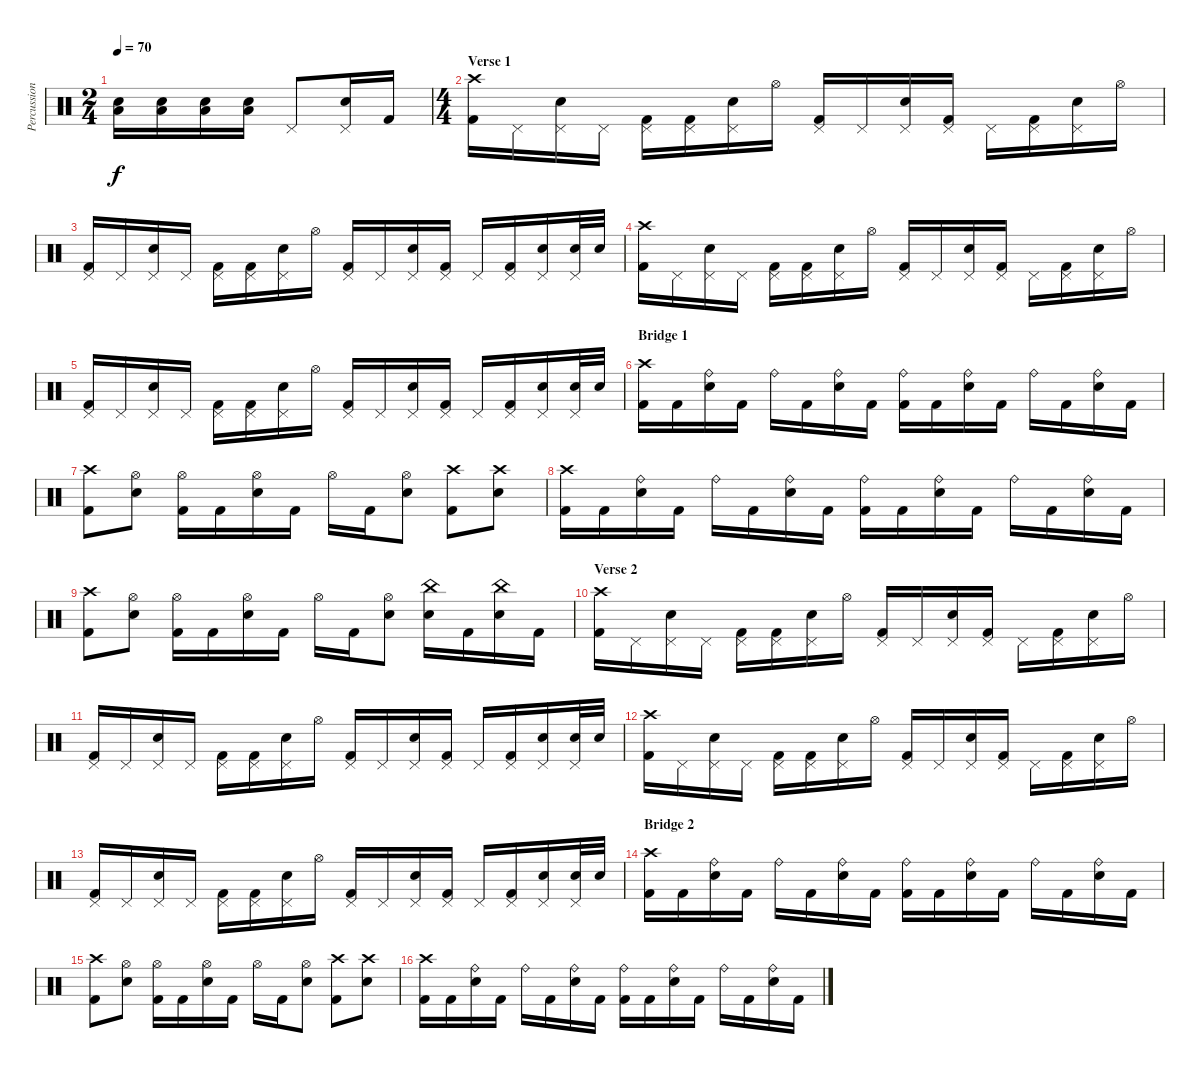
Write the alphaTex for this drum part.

\track ("Percussion" "Percussion") {instrument percussion}
\staff {score}
\articulation defaults
\ts (2 4)
\tempo 70
\clef neutral
\ks c
("Electric Snare (hit)" "Low Tom (hit)").16{dy f} ("Electric Snare (hit)" "Low Tom (hit)").16 ("Electric Snare (hit)" "Low Tom (hit)").16 ("Electric Snare (hit)" "Low Tom (hit)").16 "Pedal Hi-Hat (hit)".8 ("Electric Snare (hit)" "Pedal Hi-Hat (hit)").16 "Kick (hit) 2".16 |
\ts (4 4)
\section ("" "Verse 1")
("Kick (hit) 2" "Crash high (hit)").16 "Pedal Hi-Hat (hit)".16 ("Electric Snare (hit)" "Pedal Hi-Hat (hit)").16 "Pedal Hi-Hat (hit)".16 ("Kick (hit) 2" "Pedal Hi-Hat (hit)").16 ("Kick (hit) 2" "Pedal Hi-Hat (hit)").16 ("Electric Snare (hit)" "Pedal Hi-Hat (hit)").16 "Hi-Hat (open)".16 ("Kick (hit) 2" "Pedal Hi-Hat (hit)").16 "Pedal Hi-Hat (hit)".16 ("Electric Snare (hit)" "Pedal Hi-Hat (hit)").16 ("Kick (hit) 2" "Pedal Hi-Hat (hit)").16 "Pedal Hi-Hat (hit)".16 ("Kick (hit) 2" "Pedal Hi-Hat (hit)").16 ("Electric Snare (hit)" "Pedal Hi-Hat (hit)").16 "Hi-Hat (open)".16 |
("Kick (hit) 2" "Pedal Hi-Hat (hit)").16 "Pedal Hi-Hat (hit)".16 ("Electric Snare (hit)" "Pedal Hi-Hat (hit)").16 "Pedal Hi-Hat (hit)".16 ("Kick (hit) 2" "Pedal Hi-Hat (hit)").16 ("Kick (hit) 2" "Pedal Hi-Hat (hit)").16 ("Electric Snare (hit)" "Pedal Hi-Hat (hit)").16 "Hi-Hat (open)".16 ("Kick (hit) 2" "Pedal Hi-Hat (hit)").16 "Pedal Hi-Hat (hit)".16 ("Electric Snare (hit)" "Pedal Hi-Hat (hit)").16 ("Kick (hit) 2" "Pedal Hi-Hat (hit)").16 "Pedal Hi-Hat (hit)".16 ("Kick (hit) 2" "Pedal Hi-Hat (hit)").16 ("Electric Snare (hit)" "Pedal Hi-Hat (hit)").16 ("Electric Snare (hit)" "Pedal Hi-Hat (hit)").32 "Electric Snare (hit)".32 |
("Kick (hit) 2" "Crash high (hit)").16 "Pedal Hi-Hat (hit)".16 ("Electric Snare (hit)" "Pedal Hi-Hat (hit)").16 "Pedal Hi-Hat (hit)".16 ("Kick (hit) 2" "Pedal Hi-Hat (hit)").16 ("Kick (hit) 2" "Pedal Hi-Hat (hit)").16 ("Electric Snare (hit)" "Pedal Hi-Hat (hit)").16 "Hi-Hat (open)".16 ("Kick (hit) 2" "Pedal Hi-Hat (hit)").16 "Pedal Hi-Hat (hit)".16 ("Electric Snare (hit)" "Pedal Hi-Hat (hit)").16 ("Kick (hit) 2" "Pedal Hi-Hat (hit)").16 "Pedal Hi-Hat (hit)".16 ("Kick (hit) 2" "Pedal Hi-Hat (hit)").16 ("Electric Snare (hit)" "Pedal Hi-Hat (hit)").16 "Hi-Hat (open)".16 |
("Kick (hit) 2" "Pedal Hi-Hat (hit)").16 "Pedal Hi-Hat (hit)".16 ("Electric Snare (hit)" "Pedal Hi-Hat (hit)").16 "Pedal Hi-Hat (hit)".16 ("Kick (hit) 2" "Pedal Hi-Hat (hit)").16 ("Kick (hit) 2" "Pedal Hi-Hat (hit)").16 ("Electric Snare (hit)" "Pedal Hi-Hat (hit)").16 "Hi-Hat (open)".16 ("Kick (hit) 2" "Pedal Hi-Hat (hit)").16 "Pedal Hi-Hat (hit)".16 ("Electric Snare (hit)" "Pedal Hi-Hat (hit)").16 ("Kick (hit) 2" "Pedal Hi-Hat (hit)").16 "Pedal Hi-Hat (hit)".16 ("Kick (hit) 2" "Pedal Hi-Hat (hit)").16 ("Electric Snare (hit)" "Pedal Hi-Hat (hit)").16 ("Electric Snare (hit)" "Pedal Hi-Hat (hit)").32 "Electric Snare (hit)".32 |
\section ("" "Bridge 1")
("Kick (hit) 2" "Crash high (hit)").16 "Kick (hit) 2".16 ("Electric Snare (hit)" "Ride (bell)").16 "Kick (hit) 2".16 "Ride (bell)".16 "Kick (hit) 2".16 ("Electric Snare (hit)" "Ride (bell)").16 "Kick (hit) 2".16 ("Kick (hit) 2" "Ride (bell)").16 "Kick (hit) 2".16 ("Electric Snare (hit)" "Ride (bell)").16 "Kick (hit) 2".16 "Ride (bell)".16 "Kick (hit) 2".16 ("Electric Snare (hit)" "Ride (bell)").16 "Kick (hit) 2".16 |
("Kick (hit) 2" "Crash high (hit)").8 ("Electric Snare (hit)" "Hi-Hat (open)").8 ("Kick (hit) 2" "Hi-Hat (open)").16 "Kick (hit) 2".16 ("Electric Snare (hit)" "Hi-Hat (open)").16 "Kick (hit) 2".16 "Hi-Hat (open)".16 "Kick (hit) 2".16 ("Electric Snare (hit)" "Hi-Hat (open)").8 ("Kick (hit) 2" "Crash high (hit)").8 ("Electric Snare (hit)" "Crash high (hit)").8 |
("Kick (hit) 2" "Crash high (hit)").16 "Kick (hit) 2".16 ("Electric Snare (hit)" "Ride (bell)").16 "Kick (hit) 2".16 "Ride (bell)".16 "Kick (hit) 2".16 ("Electric Snare (hit)" "Ride (bell)").16 "Kick (hit) 2".16 ("Kick (hit) 2" "Ride (bell)").16 "Kick (hit) 2".16 ("Electric Snare (hit)" "Ride (bell)").16 "Kick (hit) 2".16 "Ride (bell)".16 "Kick (hit) 2".16 ("Electric Snare (hit)" "Ride (bell)").16 "Kick (hit) 2".16 |
("Kick (hit) 2" "Crash high (hit)").8 ("Electric Snare (hit)" "Hi-Hat (open)").8 ("Kick (hit) 2" "Hi-Hat (open)").16 "Kick (hit) 2".16 ("Electric Snare (hit)" "Hi-Hat (open)").16 "Kick (hit) 2".16 "Hi-Hat (open)".16 "Kick (hit) 2".16 ("Electric Snare (hit)" "Hi-Hat (open)").8 ("Electric Snare (hit)" "China (hit)").16 "Kick (hit) 2".16 ("Electric Snare (hit)" "China (hit)").16 "Kick (hit) 2".16 |
\section ("" "Verse 2")
("Kick (hit) 2" "Crash high (hit)").16 "Pedal Hi-Hat (hit)".16 ("Electric Snare (hit)" "Pedal Hi-Hat (hit)").16 "Pedal Hi-Hat (hit)".16 ("Kick (hit) 2" "Pedal Hi-Hat (hit)").16 ("Kick (hit) 2" "Pedal Hi-Hat (hit)").16 ("Electric Snare (hit)" "Pedal Hi-Hat (hit)").16 "Hi-Hat (open)".16 ("Kick (hit) 2" "Pedal Hi-Hat (hit)").16 "Pedal Hi-Hat (hit)".16 ("Electric Snare (hit)" "Pedal Hi-Hat (hit)").16 ("Kick (hit) 2" "Pedal Hi-Hat (hit)").16 "Pedal Hi-Hat (hit)".16 ("Kick (hit) 2" "Pedal Hi-Hat (hit)").16 ("Electric Snare (hit)" "Pedal Hi-Hat (hit)").16 "Hi-Hat (open)".16 |
("Kick (hit) 2" "Pedal Hi-Hat (hit)").16 "Pedal Hi-Hat (hit)".16 ("Electric Snare (hit)" "Pedal Hi-Hat (hit)").16 "Pedal Hi-Hat (hit)".16 ("Kick (hit) 2" "Pedal Hi-Hat (hit)").16 ("Kick (hit) 2" "Pedal Hi-Hat (hit)").16 ("Electric Snare (hit)" "Pedal Hi-Hat (hit)").16 "Hi-Hat (open)".16 ("Kick (hit) 2" "Pedal Hi-Hat (hit)").16 "Pedal Hi-Hat (hit)".16 ("Electric Snare (hit)" "Pedal Hi-Hat (hit)").16 ("Kick (hit) 2" "Pedal Hi-Hat (hit)").16 "Pedal Hi-Hat (hit)".16 ("Kick (hit) 2" "Pedal Hi-Hat (hit)").16 ("Electric Snare (hit)" "Pedal Hi-Hat (hit)").16 ("Electric Snare (hit)" "Pedal Hi-Hat (hit)").32 "Electric Snare (hit)".32 |
("Kick (hit) 2" "Crash high (hit)").16 "Pedal Hi-Hat (hit)".16 ("Electric Snare (hit)" "Pedal Hi-Hat (hit)").16 "Pedal Hi-Hat (hit)".16 ("Kick (hit) 2" "Pedal Hi-Hat (hit)").16 ("Kick (hit) 2" "Pedal Hi-Hat (hit)").16 ("Electric Snare (hit)" "Pedal Hi-Hat (hit)").16 "Hi-Hat (open)".16 ("Kick (hit) 2" "Pedal Hi-Hat (hit)").16 "Pedal Hi-Hat (hit)".16 ("Electric Snare (hit)" "Pedal Hi-Hat (hit)").16 ("Kick (hit) 2" "Pedal Hi-Hat (hit)").16 "Pedal Hi-Hat (hit)".16 ("Kick (hit) 2" "Pedal Hi-Hat (hit)").16 ("Electric Snare (hit)" "Pedal Hi-Hat (hit)").16 "Hi-Hat (open)".16 |
("Kick (hit) 2" "Pedal Hi-Hat (hit)").16 "Pedal Hi-Hat (hit)".16 ("Electric Snare (hit)" "Pedal Hi-Hat (hit)").16 "Pedal Hi-Hat (hit)".16 ("Kick (hit) 2" "Pedal Hi-Hat (hit)").16 ("Kick (hit) 2" "Pedal Hi-Hat (hit)").16 ("Electric Snare (hit)" "Pedal Hi-Hat (hit)").16 "Hi-Hat (open)".16 ("Kick (hit) 2" "Pedal Hi-Hat (hit)").16 "Pedal Hi-Hat (hit)".16 ("Electric Snare (hit)" "Pedal Hi-Hat (hit)").16 ("Kick (hit) 2" "Pedal Hi-Hat (hit)").16 "Pedal Hi-Hat (hit)".16 ("Kick (hit) 2" "Pedal Hi-Hat (hit)").16 ("Electric Snare (hit)" "Pedal Hi-Hat (hit)").16 ("Electric Snare (hit)" "Pedal Hi-Hat (hit)").32 "Electric Snare (hit)".32 |
\section ("" "Bridge 2")
("Kick (hit) 2" "Crash high (hit)").16 "Kick (hit) 2".16 ("Electric Snare (hit)" "Ride (bell)").16 "Kick (hit) 2".16 "Ride (bell)".16 "Kick (hit) 2".16 ("Electric Snare (hit)" "Ride (bell)").16 "Kick (hit) 2".16 ("Kick (hit) 2" "Ride (bell)").16 "Kick (hit) 2".16 ("Electric Snare (hit)" "Ride (bell)").16 "Kick (hit) 2".16 "Ride (bell)".16 "Kick (hit) 2".16 ("Electric Snare (hit)" "Ride (bell)").16 "Kick (hit) 2".16 |
("Kick (hit) 2" "Crash high (hit)").8 ("Electric Snare (hit)" "Hi-Hat (open)").8 ("Kick (hit) 2" "Hi-Hat (open)").16 "Kick (hit) 2".16 ("Electric Snare (hit)" "Hi-Hat (open)").16 "Kick (hit) 2".16 "Hi-Hat (open)".16 "Kick (hit) 2".16 ("Electric Snare (hit)" "Hi-Hat (open)").8 ("Kick (hit) 2" "Crash high (hit)").8 ("Electric Snare (hit)" "Crash high (hit)").8 |
("Kick (hit) 2" "Crash high (hit)").16 "Kick (hit) 2".16 ("Electric Snare (hit)" "Ride (bell)").16 "Kick (hit) 2".16 "Ride (bell)".16 "Kick (hit) 2".16 ("Electric Snare (hit)" "Ride (bell)").16 "Kick (hit) 2".16 ("Kick (hit) 2" "Ride (bell)").16 "Kick (hit) 2".16 ("Electric Snare (hit)" "Ride (bell)").16 "Kick (hit) 2".16 "Ride (bell)".16 "Kick (hit) 2".16 ("Electric Snare (hit)" "Ride (bell)").16 "Kick (hit) 2".16
